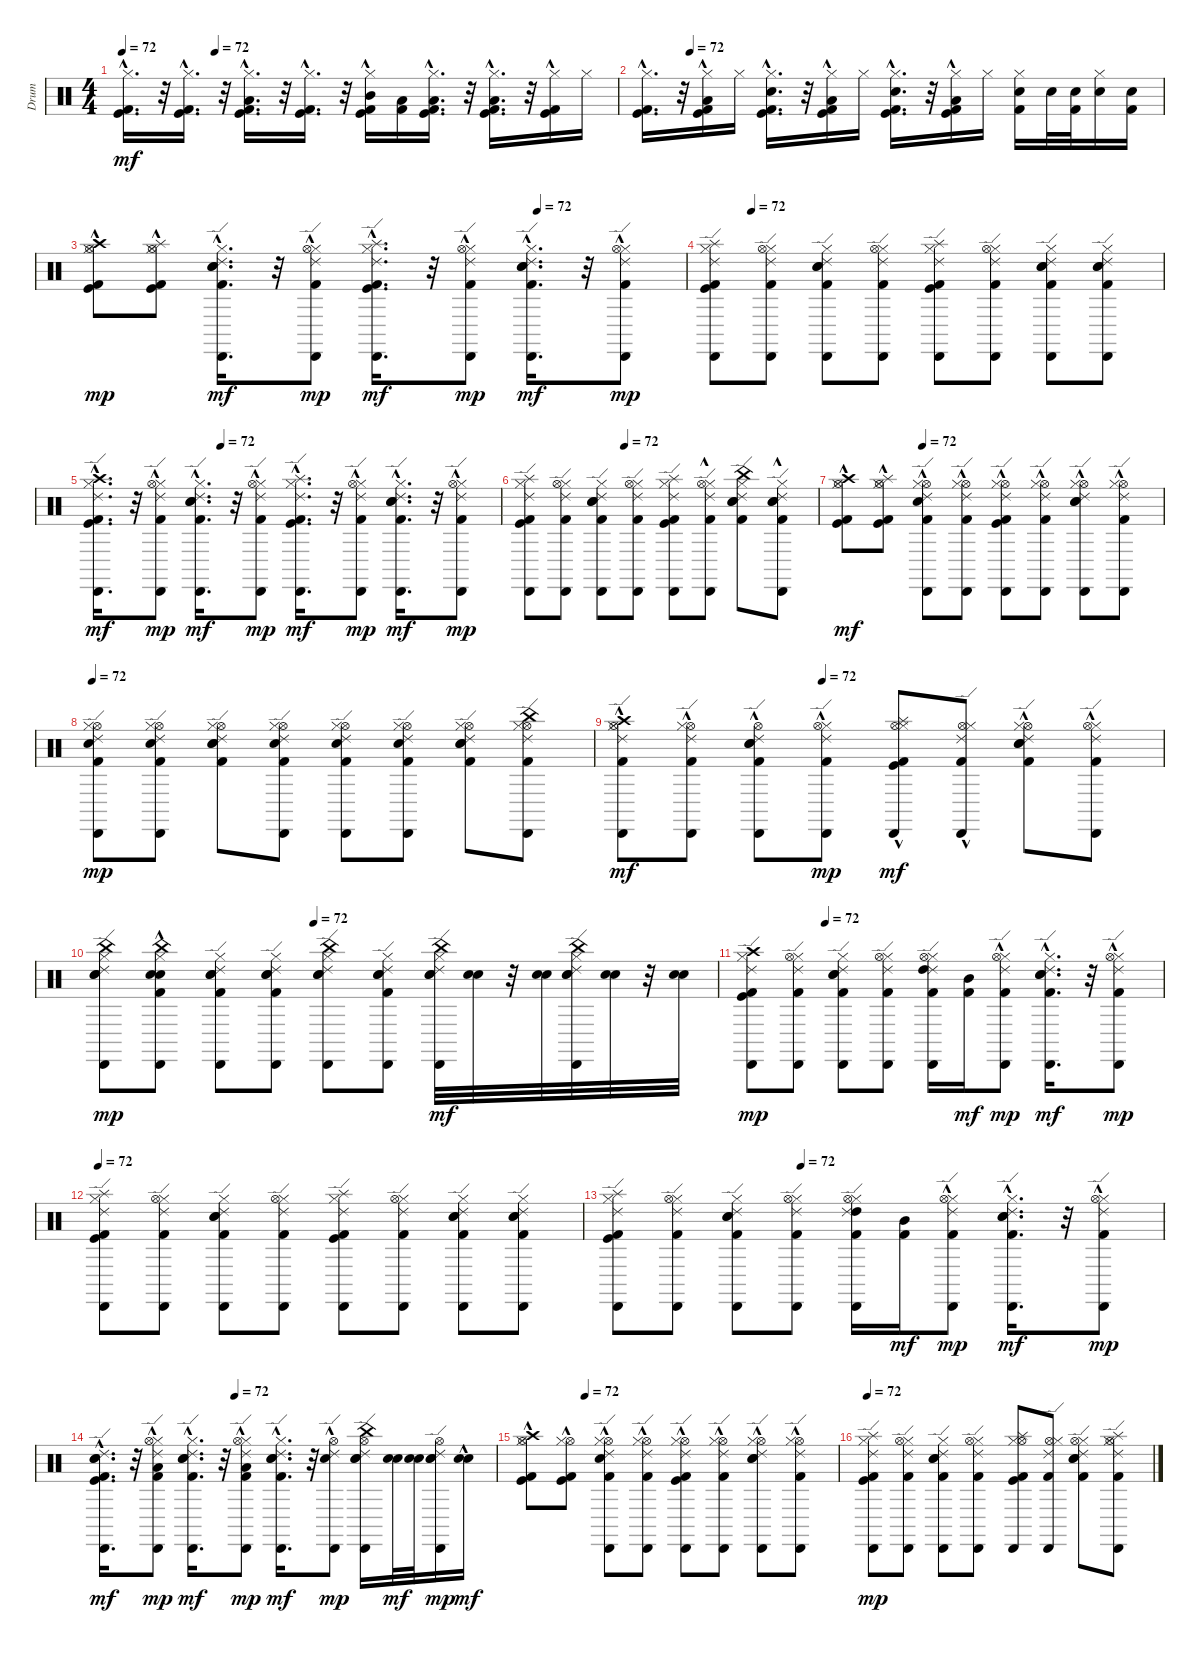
\track ("Drum" "Drum") {instrument percussion}
\staff {score}
\articulation defaults
\ts (4 4)
\tempo 72
\tempo (72 0.1875)
\clef neutral
\ks c
("Hi-Hat (closed)"{hac} "Kick (hit)"{hac} "Kick (hit) 2"{hac}).16{d dy mf} r.32 ("Hi-Hat (closed)"{hac} "Kick (hit)"{hac} "Kick (hit) 2"{hac}).16{d} r.32 ("Hi-Hat (closed)"{hac} "Kick (hit)"{hac} "Kick (hit) 2"{hac} "Low Tom (hit)"{hac}).16{d} r.32 ("Hi-Hat (closed)"{hac} "Kick (hit)"{hac} "Kick (hit) 2"{hac}).16{d} r.32 ("Hi-Hat (closed)"{hac} "Kick (hit) 2" "Kick (hit)" "Mid Tom (hit)").16 ("Low Tom (hit)" "Kick (hit) 2").16 ("Hi-Hat (closed)"{hac} "Kick (hit)"{hac} "Low Floor Tom (hit)"{hac} "Kick (hit) 2"{hac}).16{d} r.32 ("Hi-Hat (closed)"{hac} "Kick (hit)"{hac} "Kick (hit) 2"{hac} "Low Tom (hit)"{hac}).16{d} r.32 ("Hi-Hat (closed)" "Kick (hit)"{hac} "Kick (hit) 2"{hac}).16 "Hi-Hat (closed)".16 |
\tempo (72 0.09375)
("Kick (hit)"{hac} "Kick (hit) 2"{hac} "Hi-Hat (closed)"{hac}).16{d} r.32 ("Kick (hit)"{hac} "Kick (hit) 2"{hac} "Low Tom (hit)"{hac} "Hi-Hat (closed)").16 "Hi-Hat (closed)".16 ("Kick (hit) 2"{hac} "Kick (hit)"{hac} "Snare (hit) 2"{hac} "Hi-Hat (closed)"{hac}).16{d} r.32 ("Kick (hit) 2"{hac} "Kick (hit)"{hac} "Hi-Hat (closed)" "Low Tom (hit)"{hac}).16 "Hi-Hat (closed)".16 ("Kick (hit)"{hac} "Hi-Hat (closed)"{hac} "Kick (hit) 2"{hac} "Snare (hit) 2"{hac}).16{d} r.32 ("Low Tom (hit)"{hac} "Kick (hit) 2"{hac} "Kick (hit)"{hac} "Hi-Hat (closed)").16 "Hi-Hat (closed)".16 ("Hi-Hat (closed)" "Snare (hit) 2" "Kick (hit) 2").16 "Snare (hit) 2".32 ("Kick (hit) 2" "Snare (hit) 2").32 ("Snare (hit) 2" "Hi-Hat (closed)").16 ("Snare (hit) 2" "Kick (hit) 2").16 |
\tempo (72 0.75)
("Crash high (hit)"{hac} "Hi-Hat (closed)"{hac} "Kick (hit)"{hac} "Kick (hit) 2"{hac} "Hi-Hat (open)").8{dy mp} ("Splash (hit)"{hac} "Hi-Hat (closed)"{hac} "Kick (hit)"{hac} "Kick (hit) 2"{hac} "Hi-Hat (open)").8 ("Electric Snare (hit)"{hac} "Snare (hit) 2"{hac} "Kick (hit) 2"{hac} "Cabasa (hit)"{hac} "Hi-Hat (closed)"{hac} "Ride (edge) 2"{hac}).16{d dy mf} r.32 ("Kick (hit) 2"{hac} "Ride (edge) 2"{hac} "Cabasa (hit)"{hac} "Hi-Hat (closed)"{hac} "Hi-Hat (open)").8{dy mp} ("Splash (hit)"{hac} "Ride (edge) 2"{hac} "Cabasa (hit)"{hac} "Kick (hit) 2"{hac} "Kick (hit)"{hac} "Hi-Hat (closed)"{hac}).16{d dy mf} r.32 ("Ride (edge) 2"{hac} "Cabasa (hit)"{hac} "Kick (hit) 2"{hac} "Hi-Hat (closed)"{hac} "Hi-Hat (open)").8{dy mp} ("Kick (hit) 2"{hac} "Electric Snare (hit)"{hac} "Cabasa (hit)"{hac} "Hi-Hat (closed)"{hac} "Snare (hit) 2"{hac} "Ride (edge) 2"{hac}).16{d dy mf} r.32 ("Ride (edge) 2"{hac} "Cabasa (hit)"{hac} "Kick (hit) 2"{hac} "Hi-Hat (closed)"{hac} "Hi-Hat (open)").8{dy mp} |
\tempo (72 0.09375)
("Splash (hit)" "Cabasa (hit)" "Kick (hit) 2" "Hi-Hat (closed)" "Kick (hit)" "Ride (edge) 2").8 ("Cabasa (hit)" "Ride (edge) 2" "Hi-Hat (closed)" "Kick (hit) 2" "Hi-Hat (open)").8 ("Cabasa (hit)" "Hi-Hat (closed)" "Electric Snare (hit)" "Snare (hit) 2" "Kick (hit) 2" "Ride (edge) 2").8 ("Cabasa (hit)" "Kick (hit) 2" "Ride (edge) 2" "Hi-Hat (closed)" "Hi-Hat (open)").8 ("Splash (hit)" "Cabasa (hit)" "Kick (hit) 2" "Kick (hit)" "Ride (edge) 2" "Hi-Hat (closed)").8 ("Cabasa (hit)" "Kick (hit) 2" "Ride (edge) 2" "Hi-Hat (closed)" "Hi-Hat (open)").8 ("Cabasa (hit)" "Kick (hit) 2" "Electric Snare (hit)" "Hi-Hat (closed)" "Snare (hit) 2" "Ride (edge) 2").8 ("Snare (hit) 2" "Electric Snare (hit)" "Cabasa (hit)" "Kick (hit) 2" "Ride (edge) 2" "Hi-Hat (closed)").8 |
\tempo (72 0.3125)
("Crash high (hit)"{hac} "Hi-Hat (closed)"{hac} "Ride (edge) 2"{hac} "Cabasa (hit)"{hac} "Kick (hit) 2"{hac} "Kick (hit)"{hac}).16{d dy mf} r.32 ("Hi-Hat (closed)"{hac} "Ride (edge) 2"{hac} "Cabasa (hit)"{hac} "Kick (hit) 2"{hac} "Hi-Hat (open)").8{dy mp} ("Hi-Hat (closed)"{hac} "Ride (edge) 2"{hac} "Cabasa (hit)"{hac} "Kick (hit) 2"{hac} "Snare (hit) 2"{hac} "Electric Snare (hit)"{hac}).16{d dy mf} r.32 ("Hi-Hat (closed)"{hac} "Ride (edge) 2"{hac} "Cabasa (hit)"{hac} "Kick (hit) 2"{hac} "Hi-Hat (open)").8{dy mp} ("Splash (hit)"{hac} "Hi-Hat (closed)"{hac} "Ride (edge) 2"{hac} "Cabasa (hit)"{hac} "Kick (hit) 2"{hac} "Kick (hit)"{hac}).16{d dy mf} r.32 ("Hi-Hat (closed)"{hac} "Ride (edge) 2"{hac} "Cabasa (hit)"{hac} "Kick (hit) 2"{hac} "Hi-Hat (open)").8{dy mp} ("Hi-Hat (closed)"{hac} "Ride (edge) 2"{hac} "Cabasa (hit)"{hac} "Kick (hit) 2"{hac} "Snare (hit) 2"{hac} "Electric Snare (hit)"{hac}).16{d dy mf} r.32 ("Hi-Hat (closed)"{hac} "Ride (edge) 2"{hac} "Cabasa (hit)"{hac} "Kick (hit) 2"{hac} "Hi-Hat (open)").8{dy mp} |
\tempo (72 0.34375)
("Ride (edge) 2" "Kick (hit)" "Hi-Hat (closed)" "Kick (hit) 2" "Cabasa (hit)" "Splash (hit)").8 ("Kick (hit) 2" "Hi-Hat (closed)" "Ride (edge) 2" "Cabasa (hit)" "Hi-Hat (open)").8 ("Ride (edge) 2" "Kick (hit) 2" "Snare (hit) 2" "Electric Snare (hit)" "Hi-Hat (closed)" "Cabasa (hit)").8 ("Hi-Hat (closed)" "Ride (edge) 2" "Kick (hit) 2" "Cabasa (hit)" "Hi-Hat (open)").8 ("Hi-Hat (closed)" "Ride (edge) 2" "Kick (hit)" "Kick (hit) 2" "Cabasa (hit)" "Splash (hit)").8 ("Hi-Hat (closed)" "Ride (edge) 2" "Kick (hit) 2" "Cabasa (hit)" "Hi-Hat (open)"{hac}).8 ("China (hit)" "Ride (edge) 2" "Snare (hit) 2" "Hi-Hat (closed)" "Electric Snare (hit)" "Kick (hit) 2").8 ("Hi-Hat (closed)" "Ride (edge) 2" "Kick (hit) 2" "Cabasa (hit)" "Electric Snare (hit)"{hac} "Snare (hit) 2").8 |
\tempo (72 0.25)
("Hi-Hat (open)" "Kick (hit) 2"{hac} "Kick (hit)"{hac} "Hi-Hat (closed)"{hac} "Crash high (hit)"{hac}).8{dy mf} ("Hi-Hat (open)" "Kick (hit) 2"{hac} "Kick (hit)"{hac} "Hi-Hat (closed)"{hac} "Splash (hit)"{hac}).8 ("Hi-Hat (open)" "Ride (edge) 2"{hac} "Hi-Hat (closed)"{hac} "Cabasa (hit)"{hac} "Kick (hit) 2"{hac} "Snare (hit) 2"{hac}).8 ("Hi-Hat (open)" "Hi-Hat (closed)"{hac} "Cabasa (hit)"{hac} "Ride (edge) 2"{hac} "Kick (hit) 2"{hac}).8 ("Hi-Hat (open)" "Hi-Hat (closed)"{hac} "Kick (hit)" "Kick (hit) 2"{hac} "Cabasa (hit)"{hac} "Ride (edge) 2"{hac}).8 ("Hi-Hat (open)" "Hi-Hat (closed)"{hac} "Kick (hit) 2"{hac} "Cabasa (hit)"{hac} "Ride (edge) 2"{hac}).8 ("Hi-Hat (open)" "Ride (edge) 2"{hac} "Snare (hit) 2"{hac} "Hi-Hat (closed)"{hac} "Cabasa (hit)"{hac} "Electric Snare (hit)").8 ("Hi-Hat (open)" "Hi-Hat (closed)"{hac} "Kick (hit) 2"{hac} "Cabasa (hit)"{hac} "Ride (edge) 2"{hac}).8 |
\tempo 72
("Hi-Hat (open)" "Ride (edge) 2" "Hi-Hat (closed)" "Kick (hit) 2" "Cabasa (hit)" "Snare (hit) 2").8{dy mp} ("Hi-Hat (open)" "Kick (hit) 2" "Hi-Hat (closed)" "Ride (edge) 2" "Cabasa (hit)" "Snare (hit) 2").8 ("Hi-Hat (open)" "Ride (edge) 2" "Kick (hit) 2" "Snare (hit) 2" "Electric Snare (hit)" "Hi-Hat (closed)").8 ("Hi-Hat (open)" "Hi-Hat (closed)" "Ride (edge) 2" "Kick (hit) 2" "Cabasa (hit)" "Electric Snare (hit)").8 ("Hi-Hat (open)" "Hi-Hat (closed)" "Ride (edge) 2" "Kick (hit) 2" "Cabasa (hit)" "Snare (hit) 2").8 ("Hi-Hat (open)" "Hi-Hat (closed)" "Ride (edge) 2" "Kick (hit) 2" "Cabasa (hit)" "Electric Snare (hit)").8 ("Hi-Hat (open)" "Ride (edge) 2" "Snare (hit) 2" "Hi-Hat (closed)" "Electric Snare (hit)" "Kick (hit) 2").8 ("China (hit)" "Hi-Hat (open)" "Hi-Hat (closed)" "Ride (edge) 2" "Kick (hit) 2" "Cabasa (hit)").8 |
\tempo (72 0.375)
("Crash high (hit)"{hac} "Hi-Hat (closed)"{hac} "Kick (hit) 2"{hac} "Hi-Hat (open)" "Ride (edge) 2"{hac} "Cabasa (hit)"{hac}).8{dy mf} ("Cabasa (hit)"{hac} "Kick (hit) 2"{hac} "Hi-Hat (open)" "Ride (edge) 2"{hac} "Hi-Hat (closed)"{hac}).8 ("Snare (hit) 2"{hac} "Electric Snare (hit)"{hac} "Hi-Hat (open)" "Ride (edge) 2"{hac} "Cabasa (hit)"{hac} "Kick (hit) 2"{hac}).8 ("Hi-Hat (closed)"{hac} "Ride (edge) 2"{hac} "Cabasa (hit)"{hac} "Kick (hit) 2"{hac} "Hi-Hat (open)").8{dy mp} ("Cabasa (hit)"{hac} "Splash (hit)"{hac} "Hi-Hat (open)" "Hi-Hat (closed)"{hac} "Kick (hit)"{hac} "Kick (hit) 2"{hac}).8{dy mf} ("Kick (hit) 2"{hac} "Hi-Hat (open)" "Ride (edge) 2"{hac} "Hi-Hat (closed)"{hac} "Cabasa (hit)"{hac}).8 ("Hi-Hat (open)" "Kick (hit) 2"{hac} "Hi-Hat (closed)"{hac} "Ride (edge) 2"{hac} "Electric Snare (hit)"{hac} "Snare (hit) 2"{hac}).8 ("Hi-Hat (closed)"{hac} "Cabasa (hit)"{hac} "Hi-Hat (open)" "Kick (hit) 2" "Ride (edge) 2"{hac}).8 |
\tempo (72 0.34375)
("Electric Snare (hit)" "China (hit)" "Ride (edge) 2" "Hi-Hat (closed)" "Snare (hit) 2" "Cabasa (hit)").8{dy mp} ("Electric Snare (hit)" "China (hit)"{hac} "Kick (hit) 2" "Hi-Hat (closed)" "Snare (hit) 2" "Cabasa (hit)").8 ("Ride (edge) 2" "Kick (hit) 2" "Snare (hit) 2" "Electric Snare (hit)" "Hi-Hat (closed)" "Cabasa (hit)").8 ("Hi-Hat (closed)" "Ride (edge) 2" "Kick (hit) 2" "Cabasa (hit)" "Electric Snare (hit)" "Snare (hit) 2").8 ("Electric Snare (hit)" "China (hit)" "Hi-Hat (closed)" "Ride (edge) 2" "Snare (hit) 2" "Cabasa (hit)").8 ("Hi-Hat (closed)" "Ride (edge) 2" "Kick (hit) 2" "Cabasa (hit)" "Electric Snare (hit)" "Snare (hit) 2").8 ("Electric Snare (hit)" "Cabasa (hit)" "Ride (edge) 2" "Snare (hit) 2" "China (hit)" "Hi-Hat (closed)").32{dy mf} ("Snare (hit) 2" "Electric Snare (hit)").32 r.32 ("Electric Snare (hit)" "Snare (hit) 2").32 ("China (hit)" "Electric Snare (hit)" "Ride (edge) 2" "Cabasa (hit)" "Hi-Hat (closed)" "Snare (hit) 2").32 ("Snare (hit) 2" "Electric Snare (hit)").32 r.32 ("Electric Snare (hit)" "Snare (hit) 2").32 |
\tempo (72 0.1875)
("Crash high (hit)" "Kick (hit)" "Ride (edge) 2" "Cabasa (hit)" "Kick (hit) 2" "Hi-Hat (closed)").8{dy mp} ("Kick (hit) 2" "Ride (edge) 2" "Cabasa (hit)" "Hi-Hat (closed)" "Hi-Hat (open)").8 ("Cabasa (hit)" "Ride (edge) 2" "Electric Snare (hit)" "Kick (hit) 2" "Snare (hit) 2" "Hi-Hat (closed)").8 ("Hi-Hat (closed)" "Cabasa (hit)" "Ride (edge) 2" "Kick (hit) 2" "Hi-Hat (open)").8 ("Ride (edge) 2" "Cabasa (hit)" "High Tom (hit)" "Kick (hit) 2" "Hi-Hat (closed)" "Hi-Hat (open)").16 ("Mid Tom (hit)" "Kick (hit) 2").16{dy mf} ("Cabasa (hit)"{hac} "Hi-Hat (closed)"{hac} "Kick (hit) 2"{hac} "Ride (edge) 2"{hac} "Hi-Hat (open)").8{dy mp} ("Snare (hit) 2"{hac} "Cabasa (hit)"{hac} "Kick (hit) 2"{hac} "Ride (edge) 2"{hac} "Hi-Hat (closed)"{hac} "Electric Snare (hit)"{hac}).16{d dy mf} r.32 ("Cabasa (hit)"{hac} "Hi-Hat (closed)"{hac} "Kick (hit) 2"{hac} "Ride (edge) 2"{hac} "Hi-Hat (open)").8{dy mp} |
\tempo 72
("Cabasa (hit)" "Kick (hit) 2" "Hi-Hat (closed)" "Kick (hit)" "Ride (edge) 2" "Splash (hit)").8 ("Cabasa (hit)" "Ride (edge) 2" "Hi-Hat (closed)" "Kick (hit) 2" "Hi-Hat (open)").8 ("Cabasa (hit)" "Hi-Hat (closed)" "Electric Snare (hit)" "Snare (hit) 2" "Kick (hit) 2" "Ride (edge) 2").8 ("Cabasa (hit)" "Kick (hit) 2" "Ride (edge) 2" "Hi-Hat (closed)" "Hi-Hat (open)").8 ("Cabasa (hit)" "Kick (hit) 2" "Kick (hit)" "Ride (edge) 2" "Hi-Hat (closed)" "Splash (hit)").8 ("Cabasa (hit)" "Kick (hit) 2" "Ride (edge) 2" "Hi-Hat (closed)" "Hi-Hat (open)").8 ("Cabasa (hit)" "Kick (hit) 2" "Electric Snare (hit)" "Hi-Hat (closed)" "Snare (hit) 2" "Ride (edge) 2").8 ("Cabasa (hit)" "Kick (hit) 2" "Ride (edge) 2" "Hi-Hat (closed)" "Electric Snare (hit)" "Snare (hit) 2").8 |
\tempo (72 0.34375)
("Ride (edge) 2" "Kick (hit)" "Hi-Hat (closed)" "Kick (hit) 2" "Cabasa (hit)" "Splash (hit)").8 ("Kick (hit) 2" "Hi-Hat (closed)" "Ride (edge) 2" "Cabasa (hit)" "Hi-Hat (open)").8 ("Ride (edge) 2" "Kick (hit) 2" "Snare (hit) 2" "Electric Snare (hit)" "Hi-Hat (closed)" "Cabasa (hit)").8 ("Hi-Hat (closed)" "Ride (edge) 2" "Kick (hit) 2" "Cabasa (hit)" "Hi-Hat (open)").8 ("Cabasa (hit)" "High Tom (hit)" "Kick (hit) 2" "Ride (edge) 2" "Hi-Hat (closed)" "Hi-Hat (open)").16 ("Mid Tom (hit)" "Kick (hit) 2").16{dy mf} ("Cabasa (hit)"{hac} "Ride (edge) 2"{hac} "Hi-Hat (closed)"{hac} "Kick (hit) 2"{hac} "Hi-Hat (open)").8{dy mp} ("Cabasa (hit)"{hac} "Ride (edge) 2"{hac} "Hi-Hat (closed)"{hac} "Kick (hit) 2"{hac} "Electric Snare (hit)"{hac} "Snare (hit) 2"{hac}).16{d dy mf} r.32 ("Cabasa (hit)"{hac} "Ride (edge) 2"{hac} "Hi-Hat (closed)"{hac} "Kick (hit) 2"{hac} "Hi-Hat (open)").8{dy mp} |
\tempo (72 0.34375)
("Electric Snare (hit)"{hac} "Snare (hit) 2"{hac} "Kick (hit) 2"{hac} "Cabasa (hit)"{hac} "Kick (hit)"{hac} "Ride (edge) 2"{hac}).16{d dy mf} r.32 ("Low Tom (hit)"{hac} "Cabasa (hit)"{hac} "Kick (hit) 2"{hac} "Ride (edge) 2"{hac} "Hi-Hat (closed)"{hac} "Hi-Hat (open)").8{dy mp} ("Kick (hit) 2"{hac} "Snare (hit) 2"{hac} "Cabasa (hit)"{hac} "Ride (edge) 2"{hac} "Electric Snare (hit)"{hac} "Hi-Hat (closed)"{hac}).16{d dy mf} r.32 ("Low Tom (hit)"{hac} "Cabasa (hit)"{hac} "Kick (hit) 2"{hac} "Ride (edge) 2"{hac} "Hi-Hat (closed)"{hac} "Hi-Hat (open)").8{dy mp} ("Cabasa (hit)"{hac} "Ride (edge) 2"{hac} "Kick (hit) 2"{hac} "Hi-Hat (closed)"{hac} "Electric Snare (hit)"{hac} "Snare (hit) 2"{hac}).16{d dy mf} r.32 ("Cabasa (hit)"{hac} "Ride (edge) 2"{hac} "Snare (hit) 2"{hac} "Hi-Hat (open)").8{dy mp} ("Electric Snare (hit)" "Cabasa (hit)" "Ride (edge) 2" "Snare (hit) 2" "China (hit)" "Hi-Hat (open)").16 ("Electric Snare (hit)" "Snare (hit) 2").32{dy mf} ("Electric Snare (hit)" "Snare (hit) 2").32 ("Electric Snare (hit)" "Cabasa (hit)" "Ride (edge) 2" "Snare (hit) 2" "Hi-Hat (open)").16{dy mp} ("Electric Snare (hit)"{hac} "Snare (hit) 2").16{dy mf} |
\tempo (72 0.1875)
("Crash high (hit)" "Hi-Hat (open)" "Kick (hit) 2"{hac} "Kick (hit)"{hac} "Hi-Hat (closed)"{hac}).8 ("Hi-Hat (open)" "Kick (hit) 2"{hac} "Kick (hit)"{hac} "Hi-Hat (closed)"{hac}).8 ("Hi-Hat (open)" "Ride (edge) 2"{hac} "Hi-Hat (closed)"{hac} "Cabasa (hit)"{hac} "Kick (hit) 2"{hac} "Snare (hit) 2"{hac}).8 ("Hi-Hat (open)" "Hi-Hat (closed)"{hac} "Cabasa (hit)"{hac} "Ride (edge) 2"{hac} "Kick (hit) 2"{hac}).8 ("Hi-Hat (open)" "Hi-Hat (closed)"{hac} "Kick (hit)"{hac} "Kick (hit) 2"{hac} "Cabasa (hit)"{hac} "Ride (edge) 2"{hac}).8 ("Hi-Hat (open)" "Hi-Hat (closed)"{hac} "Kick (hit) 2"{hac} "Cabasa (hit)"{hac} "Ride (edge) 2"{hac}).8 ("Hi-Hat (open)" "Ride (edge) 2"{hac} "Snare (hit) 2"{hac} "Hi-Hat (closed)"{hac} "Cabasa (hit)"{hac} "Electric Snare (hit)"{hac}).8 ("Hi-Hat (open)" "Hi-Hat (closed)"{hac} "Kick (hit) 2"{hac} "Cabasa (hit)"{hac} "Ride (edge) 2"{hac}).8 |
\tempo 72
("Ride (edge) 2" "Kick (hit) 2" "Splash (hit)" "Kick (hit)" "Cabasa (hit)" "Hi-Hat (closed)").8{dy mp} ("Hi-Hat (closed)" "Hi-Hat (open)" "Ride (edge) 2" "Kick (hit) 2" "Cabasa (hit)").8 ("Cabasa (hit)" "Hi-Hat (closed)" "Electric Snare (hit)" "Snare (hit) 2" "Ride (edge) 2" "Kick (hit) 2").8 ("Hi-Hat (closed)" "Kick (hit) 2" "Hi-Hat (open)" "Cabasa (hit)" "Ride (edge) 2").8 ("Hi-Hat (closed)" "Kick (hit) 2" "Cabasa (hit)" "Kick (hit)" "Hi-Hat (open)" "Splash (hit)").8 ("Hi-Hat (open)" "Hi-Hat (closed)" "Kick (hit) 2" "Cabasa (hit)" "Ride (edge) 2").8 ("Snare (hit) 2" "Ride (edge) 2" "Hi-Hat (closed)" "Kick (hit) 2" "Hi-Hat (open)" "Electric Snare (hit)").8 ("Splash (hit)" "Hi-Hat (open)" "Hi-Hat (closed)" "Kick (hit) 2" "Ride (edge) 2" "Cabasa (hit)").8
